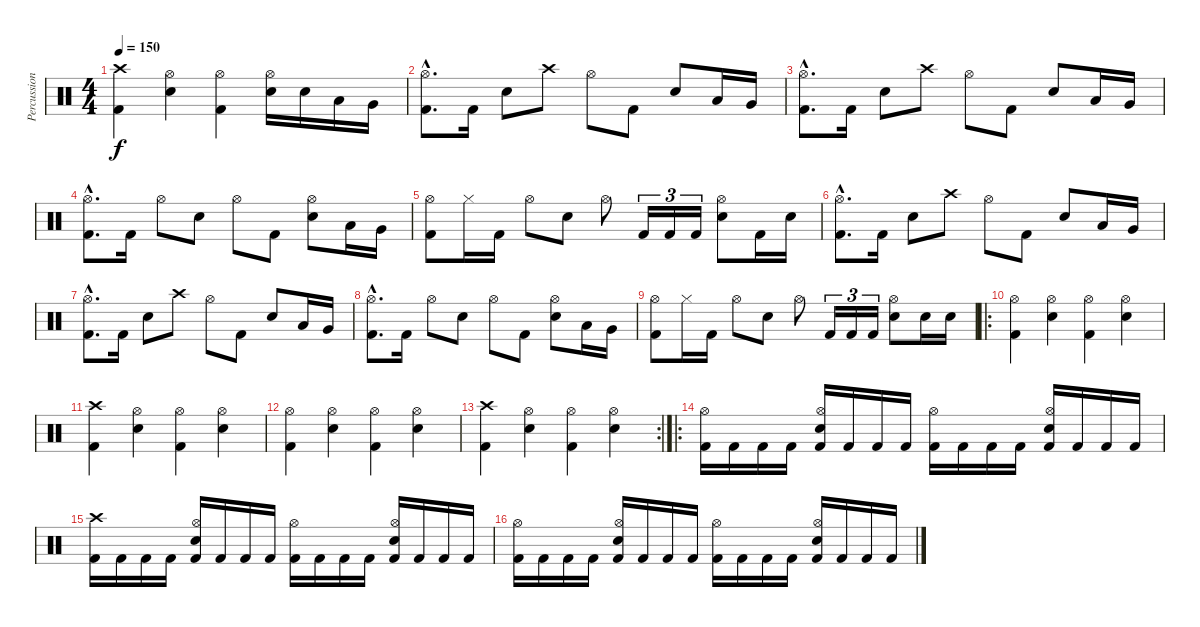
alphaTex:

\track ("Percussion" "Percussion") {instrument percussion}
\staff {score}
\articulation defaults
\ts (4 4)
\tempo 150
\clef neutral
\ks c
("Crash high (hit)" "Kick (hit) 2").4{dy f} ("Hi-Hat (open)" "Electric Snare (hit)").4 ("Hi-Hat (open)" "Kick (hit) 2").4 ("Hi-Hat (open)" "Electric Snare (hit)").16 "Electric Snare (hit)".16 "Low Tom (hit)".16 "Very Low Tom (hit)".16 |
("Hi-Hat (open)"{hac} "Kick (hit) 2"{hac}).8{d} "Kick (hit) 2".16 "Electric Snare (hit)".8 "Crash high (hit)".8 "Hi-Hat (open)".8 "Kick (hit) 2".8 "Electric Snare (hit)".8 "Low Tom (hit)".16 "Very Low Tom (hit)".16 |
("Hi-Hat (open)"{hac} "Kick (hit) 2"{hac}).8{d} "Kick (hit) 2".16 "Electric Snare (hit)".8 "Crash high (hit)".8 "Hi-Hat (open)".8 "Kick (hit) 2".8 "Electric Snare (hit)".8 "Low Tom (hit)".16 "Very Low Tom (hit)".16 |
("Hi-Hat (open)"{hac} "Kick (hit) 2"{hac}).8{d} "Kick (hit) 2".16 "Hi-Hat (open)".8 "Electric Snare (hit)".8 "Hi-Hat (open)".8 "Kick (hit) 2".8 ("Hi-Hat (open)" "Electric Snare (hit)").8 "Low Tom (hit)".16 "Very Low Tom (hit)".16 |
("Hi-Hat (open)" "Kick (hit) 2").8 "Hi-Hat (closed)".16 "Kick (hit) 2".16 "Hi-Hat (open)".8 "Electric Snare (hit)".8 "Hi-Hat (open)".8 "Kick (hit) 2".16{tu (3 2)} "Kick (hit) 2".16{tu (3 2)} "Kick (hit) 2".16{tu (3 2)} ("Hi-Hat (open)" "Electric Snare (hit)").8 "Kick (hit) 2".16 "Electric Snare (hit)".16 |
("Hi-Hat (open)"{hac} "Kick (hit) 2"{hac}).8{d} "Kick (hit) 2".16 "Electric Snare (hit)".8 "Crash high (hit)".8 "Hi-Hat (open)".8 "Kick (hit) 2".8 "Electric Snare (hit)".8 "Low Tom (hit)".16 "Very Low Tom (hit)".16 |
("Hi-Hat (open)"{hac} "Kick (hit) 2"{hac}).8{d} "Kick (hit) 2".16 "Electric Snare (hit)".8 "Crash high (hit)".8 "Hi-Hat (open)".8 "Kick (hit) 2".8 "Electric Snare (hit)".8 "Low Tom (hit)".16 "Very Low Tom (hit)".16 |
("Hi-Hat (open)"{hac} "Kick (hit) 2"{hac}).8{d} "Kick (hit) 2".16 "Hi-Hat (open)".8 "Electric Snare (hit)".8 "Hi-Hat (open)".8 "Kick (hit) 2".8 ("Hi-Hat (open)" "Electric Snare (hit)").8 "Low Tom (hit)".16 "Very Low Tom (hit)".16 |
("Hi-Hat (open)" "Kick (hit) 2").8 "Hi-Hat (closed)".16 "Kick (hit) 2".16 "Hi-Hat (open)".8 "Electric Snare (hit)".8 "Hi-Hat (open)".8 "Kick (hit) 2".16{tu (3 2)} "Kick (hit) 2".16{tu (3 2)} "Kick (hit) 2".16{tu (3 2)} ("Hi-Hat (open)" "Electric Snare (hit)").8 "Electric Snare (hit)".16 "Electric Snare (hit)".16 |
\ro
("Hi-Hat (open)" "Kick (hit) 2").4 ("Hi-Hat (open)" "Electric Snare (hit)").4 ("Hi-Hat (open)" "Kick (hit) 2").4 ("Hi-Hat (open)" "Electric Snare (hit)").4 |
("Crash high (hit)" "Kick (hit) 2").4 ("Hi-Hat (open)" "Electric Snare (hit)").4 ("Hi-Hat (open)" "Kick (hit) 2").4 ("Hi-Hat (open)" "Electric Snare (hit)").4 |
("Hi-Hat (open)" "Kick (hit) 2").4 ("Hi-Hat (open)" "Electric Snare (hit)").4 ("Hi-Hat (open)" "Kick (hit) 2").4 ("Hi-Hat (open)" "Electric Snare (hit)").4 |
\rc 2
("Crash high (hit)" "Kick (hit) 2").4 ("Hi-Hat (open)" "Electric Snare (hit)").4 ("Hi-Hat (open)" "Kick (hit) 2").4 ("Hi-Hat (open)" "Electric Snare (hit)").4 |
\ro
("Hi-Hat (open)" "Kick (hit) 2").16 "Kick (hit) 2".16 "Kick (hit) 2".16 "Kick (hit) 2".16 ("Hi-Hat (open)" "Electric Snare (hit)" "Kick (hit) 2").16 "Kick (hit) 2".16 "Kick (hit) 2".16 "Kick (hit) 2".16 ("Hi-Hat (open)" "Kick (hit) 2").16 "Kick (hit) 2".16 "Kick (hit) 2".16 "Kick (hit) 2".16 ("Hi-Hat (open)" "Electric Snare (hit)" "Kick (hit) 2").16 "Kick (hit) 2".16 "Kick (hit) 2".16 "Kick (hit) 2".16 |
("Crash high (hit)" "Kick (hit) 2").16 "Kick (hit) 2".16 "Kick (hit) 2".16 "Kick (hit) 2".16 ("Hi-Hat (open)" "Electric Snare (hit)" "Kick (hit) 2").16 "Kick (hit) 2".16 "Kick (hit) 2".16 "Kick (hit) 2".16 ("Hi-Hat (open)" "Kick (hit) 2").16 "Kick (hit) 2".16 "Kick (hit) 2".16 "Kick (hit) 2".16 ("Hi-Hat (open)" "Electric Snare (hit)" "Kick (hit) 2").16 "Kick (hit) 2".16 "Kick (hit) 2".16 "Kick (hit) 2".16 |
("Hi-Hat (open)" "Kick (hit) 2").16 "Kick (hit) 2".16 "Kick (hit) 2".16 "Kick (hit) 2".16 ("Hi-Hat (open)" "Electric Snare (hit)" "Kick (hit) 2").16 "Kick (hit) 2".16 "Kick (hit) 2".16 "Kick (hit) 2".16 ("Hi-Hat (open)" "Kick (hit) 2").16 "Kick (hit) 2".16 "Kick (hit) 2".16 "Kick (hit) 2".16 ("Hi-Hat (open)" "Electric Snare (hit)" "Kick (hit) 2").16 "Kick (hit) 2".16 "Kick (hit) 2".16 "Kick (hit) 2".16
